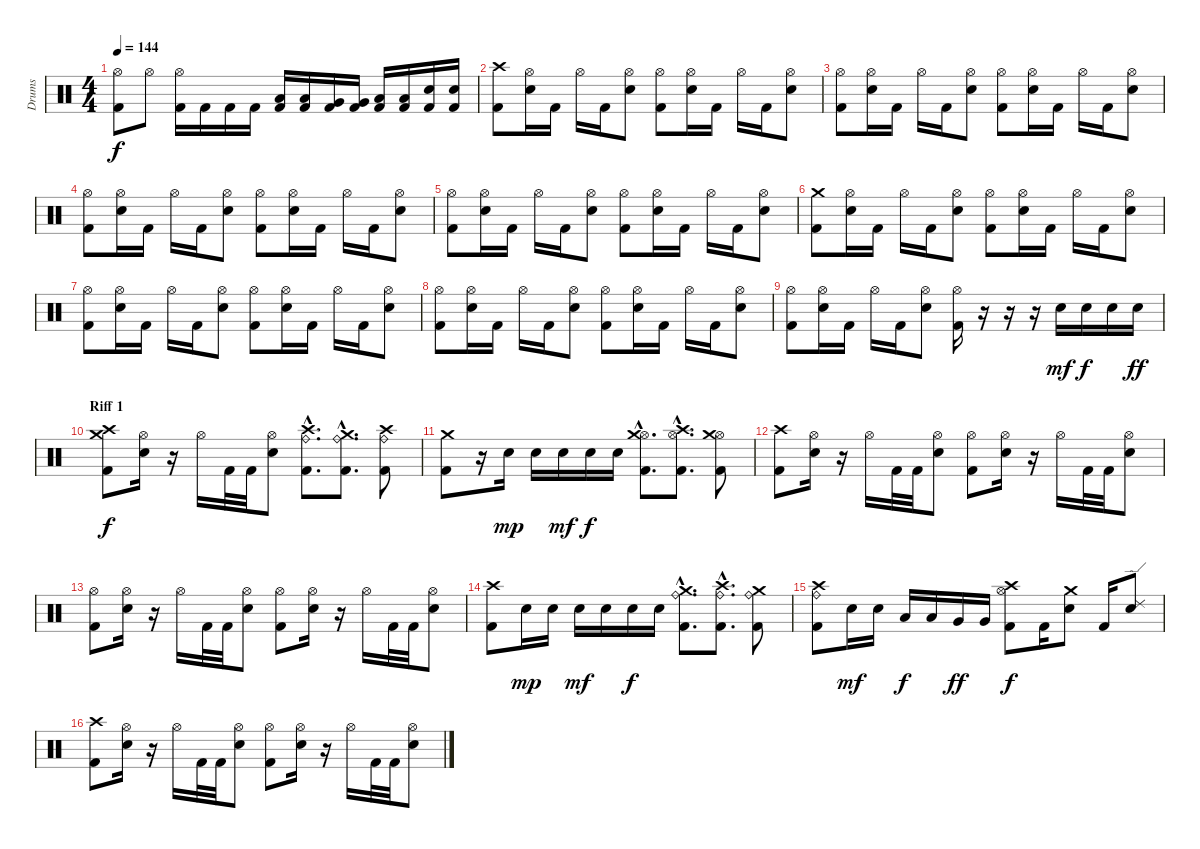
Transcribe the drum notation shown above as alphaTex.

\track ("Drums" "Drums") {instrument percussion}
\staff {score}
\articulation defaults
\ts (4 4)
\tempo 144
\clef neutral
\ks c
("Kick (hit) 2" "Hi-Hat (open)").8{dy f} "Hi-Hat (open)".8 ("Kick (hit) 2" "Hi-Hat (open)").16 "Kick (hit) 2".16 "Kick (hit) 2".16 "Kick (hit) 2".16 ("Kick (hit) 2" "Low Tom (hit)").16 ("Kick (hit) 2" "Low Tom (hit)").16 ("Kick (hit) 2" "Very Low Tom (hit)").16 ("Kick (hit) 2" "Very Low Tom (hit)").16 ("Kick (hit) 2" "Low Tom (hit)").16 ("Kick (hit) 2" "Low Tom (hit)").16 ("Kick (hit) 2" "Electric Snare (hit)").16 ("Kick (hit) 2" "Electric Snare (hit)").16 |
("Kick (hit) 2" "Crash high (hit)").8 ("Electric Snare (hit)" "Hi-Hat (open)").16 "Kick (hit) 2".16 "Hi-Hat (open)".16 "Kick (hit) 2".16 ("Electric Snare (hit)" "Hi-Hat (open)").8 ("Kick (hit) 2" "Hi-Hat (open)").8 ("Electric Snare (hit)" "Hi-Hat (open)").16 "Kick (hit) 2".16 "Hi-Hat (open)".16 "Kick (hit) 2".16 ("Electric Snare (hit)" "Hi-Hat (open)").8 |
("Kick (hit) 2" "Hi-Hat (open)").8 ("Electric Snare (hit)" "Hi-Hat (open)").16 "Kick (hit) 2".16 "Hi-Hat (open)".16 "Kick (hit) 2".16 ("Electric Snare (hit)" "Hi-Hat (open)").8 ("Kick (hit) 2" "Hi-Hat (open)").8 ("Electric Snare (hit)" "Hi-Hat (open)").16 "Kick (hit) 2".16 "Hi-Hat (open)".16 "Kick (hit) 2".16 ("Electric Snare (hit)" "Hi-Hat (open)").8 |
("Kick (hit) 2" "Hi-Hat (open)").8 ("Electric Snare (hit)" "Hi-Hat (open)").16 "Kick (hit) 2".16 "Hi-Hat (open)".16 "Kick (hit) 2".16 ("Electric Snare (hit)" "Hi-Hat (open)").8 ("Kick (hit) 2" "Hi-Hat (open)").8 ("Electric Snare (hit)" "Hi-Hat (open)").16 "Kick (hit) 2".16 "Hi-Hat (open)".16 "Kick (hit) 2".16 ("Electric Snare (hit)" "Hi-Hat (open)").8 |
("Kick (hit) 2" "Hi-Hat (open)").8 ("Electric Snare (hit)" "Hi-Hat (open)").16 "Kick (hit) 2".16 "Hi-Hat (open)".16 "Kick (hit) 2".16 ("Electric Snare (hit)" "Hi-Hat (open)").8 ("Kick (hit) 2" "Hi-Hat (open)").8 ("Electric Snare (hit)" "Hi-Hat (open)").16 "Kick (hit) 2".16 "Hi-Hat (open)".16 "Kick (hit) 2".16 ("Electric Snare (hit)" "Hi-Hat (open)").8 |
("Kick (hit) 2" "Crash medium (hit)").8 ("Electric Snare (hit)" "Hi-Hat (open)").16 "Kick (hit) 2".16 "Hi-Hat (open)".16 "Kick (hit) 2".16 ("Electric Snare (hit)" "Hi-Hat (open)").8 ("Kick (hit) 2" "Hi-Hat (open)").8 ("Electric Snare (hit)" "Hi-Hat (open)").16 "Kick (hit) 2".16 "Hi-Hat (open)".16 "Kick (hit) 2".16 ("Electric Snare (hit)" "Hi-Hat (open)").8 |
("Kick (hit) 2" "Hi-Hat (open)").8 ("Electric Snare (hit)" "Hi-Hat (open)").16 "Kick (hit) 2".16 "Hi-Hat (open)".16 "Kick (hit) 2".16 ("Electric Snare (hit)" "Hi-Hat (open)").8 ("Kick (hit) 2" "Hi-Hat (open)").8 ("Electric Snare (hit)" "Hi-Hat (open)").16 "Kick (hit) 2".16 "Hi-Hat (open)".16 "Kick (hit) 2".16 ("Electric Snare (hit)" "Hi-Hat (open)").8 |
("Kick (hit) 2" "Hi-Hat (open)").8 ("Electric Snare (hit)" "Hi-Hat (open)").16 "Kick (hit) 2".16 "Hi-Hat (open)".16 "Kick (hit) 2".16 ("Electric Snare (hit)" "Hi-Hat (open)").8 ("Kick (hit) 2" "Hi-Hat (open)").8 ("Electric Snare (hit)" "Hi-Hat (open)").16 "Kick (hit) 2".16 "Hi-Hat (open)".16 "Kick (hit) 2".16 ("Electric Snare (hit)" "Hi-Hat (open)").8 |
("Kick (hit) 2" "Hi-Hat (open)").8 ("Electric Snare (hit)" "Hi-Hat (open)").16 "Kick (hit) 2".16 "Hi-Hat (open)".16 "Kick (hit) 2".16 ("Electric Snare (hit)" "Hi-Hat (open)").8 ("Kick (hit) 2" "Hi-Hat (open)").16 r.16 r.16 r.16 "Electric Snare (hit)".16{dy mf} "Electric Snare (hit)".16{dy f} "Electric Snare (hit)".16 "Electric Snare (hit)".16{dy ff} |
\section ("" "Riff 1")
("Kick (hit) 2" "Crash high (hit)" "Crash medium (hit)").8{dy f} ("Electric Snare (hit)" "Hi-Hat (open)").16 r.16 "Hi-Hat (open)".16 "Kick (hit) 2".32 "Kick (hit) 2".32 ("Electric Snare (hit)" "Hi-Hat (open)").8 ("Kick (hit) 2"{hac} "Crash high (hit)"{hac} "Ride (bell)"{hac}).8{d} ("Kick (hit) 2"{hac} "Crash medium (hit)"{hac} "Ride (bell)"{hac}).8{d} ("Kick (hit) 2" "Crash high (hit)" "Ride (bell)").8 |
("Kick (hit) 2" "Crash medium (hit)").8 r.16 "Electric Snare (hit)".16{dy mp} "Electric Snare (hit)".16 "Electric Snare (hit)".16{dy mf} "Electric Snare (hit)".16{dy f} "Electric Snare (hit)".16 ("Kick (hit) 2"{hac} "Hi-Hat (open)"{hac} "Crash medium (hit)"{hac}).8{d} ("Kick (hit) 2"{hac} "Hi-Hat (open)"{hac} "Crash high (hit)"{hac}).8{d} ("Kick (hit) 2" "Hi-Hat (open)" "Crash medium (hit)").8 |
("Kick (hit) 2" "Crash high (hit)").8 ("Electric Snare (hit)" "Hi-Hat (open)").16 r.16 "Hi-Hat (open)".16 "Kick (hit) 2".32 "Kick (hit) 2".32 ("Electric Snare (hit)" "Hi-Hat (open)").8 ("Kick (hit) 2" "Hi-Hat (open)").8 ("Electric Snare (hit)" "Hi-Hat (open)").16 r.16 "Hi-Hat (open)".16 "Kick (hit) 2".32 "Kick (hit) 2".32 ("Electric Snare (hit)" "Hi-Hat (open)").8 |
("Kick (hit) 2" "Hi-Hat (open)").8 ("Electric Snare (hit)" "Hi-Hat (open)").16 r.16 "Hi-Hat (open)".16 "Kick (hit) 2".32 "Kick (hit) 2".32 ("Electric Snare (hit)" "Hi-Hat (open)").8 ("Kick (hit) 2" "Hi-Hat (open)").8 ("Electric Snare (hit)" "Hi-Hat (open)").16 r.16 "Hi-Hat (open)".16 "Kick (hit) 2".32 "Kick (hit) 2".32 ("Electric Snare (hit)" "Hi-Hat (open)").8 |
("Kick (hit) 2" "Crash high (hit)").8 "Electric Snare (hit)".16{dy mp} "Electric Snare (hit)".16 "Electric Snare (hit)".16{dy mf} "Electric Snare (hit)".16 "Electric Snare (hit)".16{dy f} "Electric Snare (hit)".16 ("Kick (hit) 2"{hac} "Ride (bell)"{hac} "Crash medium (hit)"{hac}).8{d} ("Kick (hit) 2"{hac} "Ride (bell)"{hac} "Crash high (hit)"{hac}).8{d} ("Kick (hit) 2" "Ride (bell)" "Crash medium (hit)").8 |
("Kick (hit) 2" "Ride (bell)" "Crash high (hit)").8 "Electric Snare (hit)".16{dy mf} "Electric Snare (hit)".16 "Low Tom (hit)".16{dy f} "Low Tom (hit)".16 "Very Low Tom (hit)".16{dy ff} "Very Low Tom (hit)".16 ("Kick (hit) 2" "Hi-Hat (open)" "Crash high (hit)").8{dy f} "Kick (hit) 2".16 ("Electric Snare (hit)" "Crash medium (hit)").8 "Kick (hit) 2".16 ("Electric Snare (hit)" "Ride (edge) 2").8 |
("Kick (hit) 2" "Crash high (hit)").8 ("Electric Snare (hit)" "Hi-Hat (open)").16 r.16 "Hi-Hat (open)".16 "Kick (hit) 2".32 "Kick (hit) 2".32 ("Electric Snare (hit)" "Hi-Hat (open)").8 ("Kick (hit) 2" "Hi-Hat (open)").8 ("Electric Snare (hit)" "Hi-Hat (open)").16 r.16 "Hi-Hat (open)".16 "Kick (hit) 2".32 "Kick (hit) 2".32 ("Electric Snare (hit)" "Hi-Hat (open)").8
